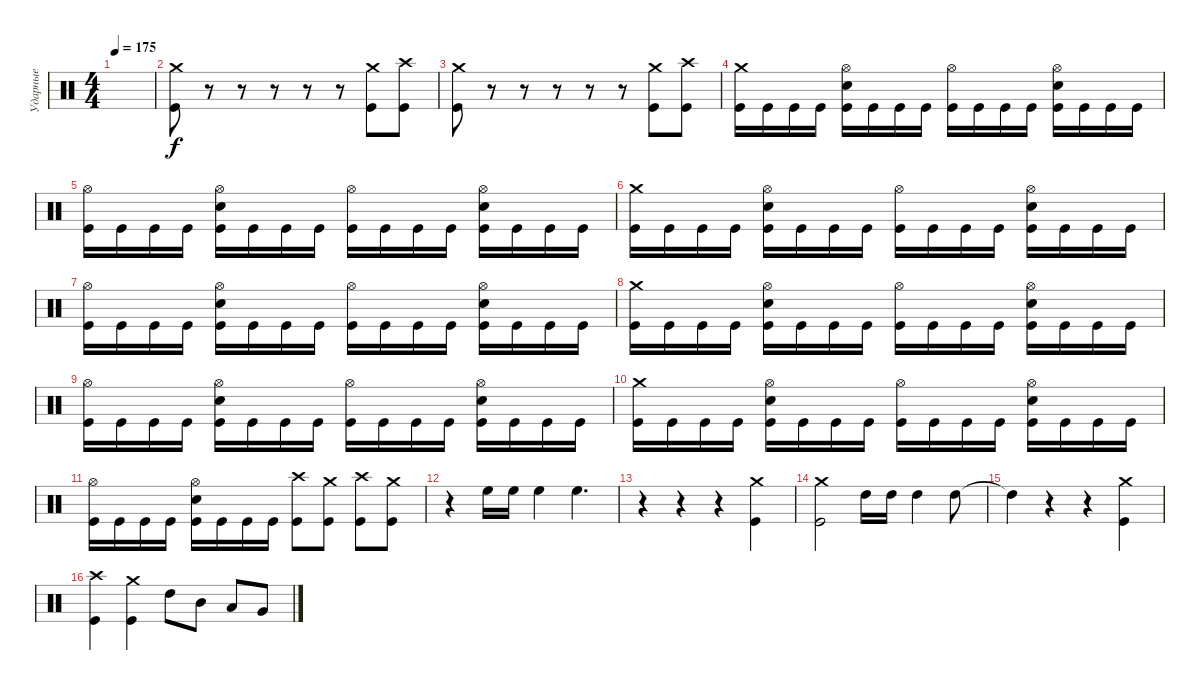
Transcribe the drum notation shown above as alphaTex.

\track ("Ударные" "Ударные") {instrument percussion}
\staff {score}
\articulation defaults
\ts (4 4)
\tempo 175
\clef neutral
\ks c
|
("Crash medium (hit)" "Kick (hit)").8 r.8 r.8 r.8 r.8 r.8 ("Crash medium (hit)" "Kick (hit)").8 ("Crash high (hit)" "Kick (hit)").8 |
("Crash medium (hit)" "Kick (hit)").8 r.8 r.8 r.8 r.8 r.8 ("Crash medium (hit)" "Kick (hit)").8 ("Crash high (hit)" "Kick (hit)").8 |
("Crash medium (hit)" "Kick (hit)").16 "Kick (hit)".16 "Kick (hit)".16 "Kick (hit)".16 ("Snare (hit) 2" "Hi-Hat (open)" "Kick (hit)").16 "Kick (hit)".16 "Kick (hit)".16 "Kick (hit)".16 ("Hi-Hat (open)" "Kick (hit)").16 "Kick (hit)".16 "Kick (hit)".16 "Kick (hit)".16 ("Snare (hit) 2" "Hi-Hat (open)" "Kick (hit)").16 "Kick (hit)".16 "Kick (hit)".16 "Kick (hit)".16 |
("Hi-Hat (open)" "Kick (hit)").16 "Kick (hit)".16 "Kick (hit)".16 "Kick (hit)".16 ("Snare (hit) 2" "Hi-Hat (open)" "Kick (hit)").16 "Kick (hit)".16 "Kick (hit)".16 "Kick (hit)".16 ("Hi-Hat (open)" "Kick (hit)").16 "Kick (hit)".16 "Kick (hit)".16 "Kick (hit)".16 ("Snare (hit) 2" "Hi-Hat (open)" "Kick (hit)").16 "Kick (hit)".16 "Kick (hit)".16 "Kick (hit)".16 |
("Crash medium (hit)" "Kick (hit)").16 "Kick (hit)".16 "Kick (hit)".16 "Kick (hit)".16 ("Snare (hit) 2" "Hi-Hat (open)" "Kick (hit)").16 "Kick (hit)".16 "Kick (hit)".16 "Kick (hit)".16 ("Hi-Hat (open)" "Kick (hit)").16 "Kick (hit)".16 "Kick (hit)".16 "Kick (hit)".16 ("Snare (hit) 2" "Hi-Hat (open)" "Kick (hit)").16 "Kick (hit)".16 "Kick (hit)".16 "Kick (hit)".16 |
("Hi-Hat (open)" "Kick (hit)").16 "Kick (hit)".16 "Kick (hit)".16 "Kick (hit)".16 ("Snare (hit) 2" "Hi-Hat (open)" "Kick (hit)").16 "Kick (hit)".16 "Kick (hit)".16 "Kick (hit)".16 ("Hi-Hat (open)" "Kick (hit)").16 "Kick (hit)".16 "Kick (hit)".16 "Kick (hit)".16 ("Snare (hit) 2" "Hi-Hat (open)" "Kick (hit)").16 "Kick (hit)".16 "Kick (hit)".16 "Kick (hit)".16 |
("Crash medium (hit)" "Kick (hit)").16 "Kick (hit)".16 "Kick (hit)".16 "Kick (hit)".16 ("Snare (hit) 2" "Hi-Hat (open)" "Kick (hit)").16 "Kick (hit)".16 "Kick (hit)".16 "Kick (hit)".16 ("Hi-Hat (open)" "Kick (hit)").16 "Kick (hit)".16 "Kick (hit)".16 "Kick (hit)".16 ("Snare (hit) 2" "Hi-Hat (open)" "Kick (hit)").16 "Kick (hit)".16 "Kick (hit)".16 "Kick (hit)".16 |
("Hi-Hat (open)" "Kick (hit)").16 "Kick (hit)".16 "Kick (hit)".16 "Kick (hit)".16 ("Snare (hit) 2" "Hi-Hat (open)" "Kick (hit)").16 "Kick (hit)".16 "Kick (hit)".16 "Kick (hit)".16 ("Hi-Hat (open)" "Kick (hit)").16 "Kick (hit)".16 "Kick (hit)".16 "Kick (hit)".16 ("Snare (hit) 2" "Hi-Hat (open)" "Kick (hit)").16 "Kick (hit)".16 "Kick (hit)".16 "Kick (hit)".16 |
("Crash medium (hit)" "Kick (hit)").16 "Kick (hit)".16 "Kick (hit)".16 "Kick (hit)".16 ("Snare (hit) 2" "Hi-Hat (open)" "Kick (hit)").16 "Kick (hit)".16 "Kick (hit)".16 "Kick (hit)".16 ("Hi-Hat (open)" "Kick (hit)").16 "Kick (hit)".16 "Kick (hit)".16 "Kick (hit)".16 ("Snare (hit) 2" "Hi-Hat (open)" "Kick (hit)").16 "Kick (hit)".16 "Kick (hit)".16 "Kick (hit)".16 |
("Hi-Hat (open)" "Kick (hit)").16 "Kick (hit)".16 "Kick (hit)".16 "Kick (hit)".16 ("Snare (hit) 2" "Hi-Hat (open)" "Kick (hit)").16 "Kick (hit)".16 "Kick (hit)".16 "Kick (hit)".16 ("Crash high (hit)" "Kick (hit)").8 ("Crash medium (hit)" "Kick (hit)").8 ("Crash high (hit)" "Kick (hit)").8 ("Crash medium (hit)" "Kick (hit)").8 |
r.4 "High Floor Tom (hit)".16 "High Floor Tom (hit)".16 "High Floor Tom (hit)".4 "High Floor Tom (hit)".4{d} |
r.4 r.4 r.4 ("Crash medium (hit)" "Kick (hit)").4 |
("Crash medium (hit)" "Kick (hit)").2 "High Tom (hit)".16 "High Tom (hit)".16 "High Tom (hit)".4 "High Tom (hit)".8 |
"High Tom (hit)"{t}.4 r.4 r.4 ("Crash medium (hit)" "Kick (hit)").4 |
("Crash high (hit)" "Kick (hit)").4 ("Crash medium (hit)" "Kick (hit)").4 "High Tom (hit)".8 "Mid Tom (hit)".8 "Low Tom (hit)".8 "Very Low Tom (hit)".8
